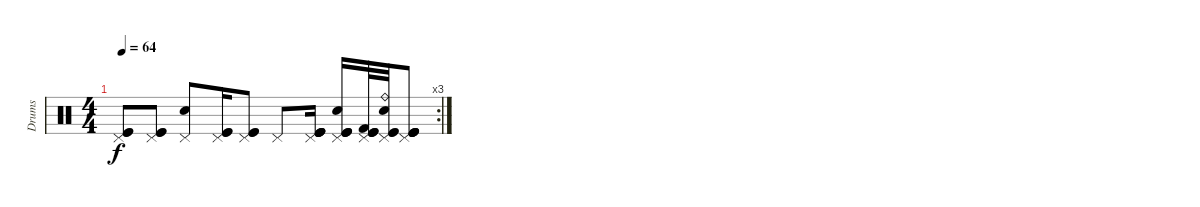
\track ("Drums" "Drums") {instrument percussion}
\staff {score}
\articulation defaults
\rc 3
\ts (4 4)
\tempo 64
\clef neutral
\ks c
("Kick (hit)" "Kick (hit)" "Pedal Hi-Hat (hit)").8{dy f} ("Kick (hit)" "Kick (hit)" "Pedal Hi-Hat (hit)").8 ("Snare (hit) 2" "Pedal Hi-Hat (hit)").8 ("Kick (hit)" "Kick (hit)" "Pedal Hi-Hat (hit)").16 ("Kick (hit)" "Kick (hit)" "Pedal Hi-Hat (hit)").8 "Pedal Hi-Hat (hit)".8 ("Kick (hit)" "Kick (hit)" "Kick (hit)" "Kick (hit)" "Pedal Hi-Hat (hit)").16 ("Snare (hit) 2" "Kick (hit)" "Kick (hit)" "Kick (hit)" "Pedal Hi-Hat (hit)").16 ("Kick (hit) 2" "Kick (hit)" "Kick (hit)" "Kick (hit)" "Pedal Hi-Hat (hit)").32 ("Snare (hit) 2" "Ride (bell)" "Kick (hit)" "Kick (hit)" "Pedal Hi-Hat (hit)").32 ("Kick (hit)" "Kick (hit)" "Kick (hit)" "Kick (hit)" "Pedal Hi-Hat (hit)").8
